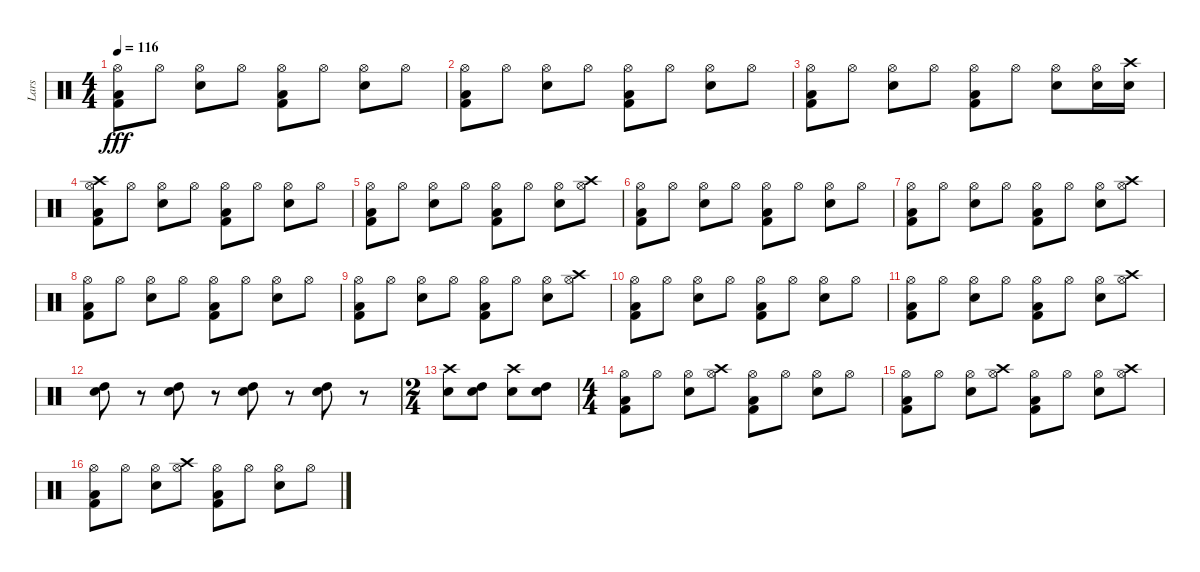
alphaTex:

\track ("Lars" "Lars") {instrument percussion}
\staff {score}
\articulation defaults
\ts (4 4)
\tempo 116
\clef neutral
\ks c
("Low Floor Tom (hit)" "Hi-Hat (open)" "Kick (hit) 2").8{dy fff} "Hi-Hat (open)".8 ("Hi-Hat (open)" "Electric Snare (hit)").8 "Hi-Hat (open)".8 ("Low Floor Tom (hit)" "Hi-Hat (open)" "Kick (hit) 2").8 "Hi-Hat (open)".8 ("Hi-Hat (open)" "Electric Snare (hit)").8 "Hi-Hat (open)".8 |
("Low Floor Tom (hit)" "Hi-Hat (open)" "Kick (hit) 2").8 "Hi-Hat (open)".8 ("Hi-Hat (open)" "Electric Snare (hit)").8 "Hi-Hat (open)".8 ("Low Floor Tom (hit)" "Hi-Hat (open)" "Kick (hit) 2").8 "Hi-Hat (open)".8 ("Hi-Hat (open)" "Electric Snare (hit)").8 "Hi-Hat (open)".8 |
("Low Floor Tom (hit)" "Hi-Hat (open)" "Kick (hit) 2").8 "Hi-Hat (open)".8 ("Hi-Hat (open)" "Electric Snare (hit)").8 "Hi-Hat (open)".8 ("Low Floor Tom (hit)" "Hi-Hat (open)" "Kick (hit) 2").8 "Hi-Hat (open)".8 ("Hi-Hat (open)" "Electric Snare (hit)").8 ("Hi-Hat (open)" "Electric Snare (hit)").16 ("Crash high (hit)" "Electric Snare (hit)").16 |
("Crash high (hit)" "Low Floor Tom (hit)" "Hi-Hat (open)" "Kick (hit) 2").8 "Hi-Hat (open)".8 ("Hi-Hat (open)" "Electric Snare (hit)").8 "Hi-Hat (open)".8 ("Low Floor Tom (hit)" "Hi-Hat (open)" "Kick (hit) 2").8 "Hi-Hat (open)".8 ("Hi-Hat (open)" "Electric Snare (hit)").8 "Hi-Hat (open)".8 |
("Low Floor Tom (hit)" "Hi-Hat (open)" "Kick (hit) 2").8 "Hi-Hat (open)".8 ("Hi-Hat (open)" "Electric Snare (hit)").8 "Hi-Hat (open)".8 ("Low Floor Tom (hit)" "Hi-Hat (open)" "Kick (hit) 2").8 "Hi-Hat (open)".8 ("Hi-Hat (open)" "Electric Snare (hit)").8 ("Crash high (hit)" "Hi-Hat (open)").8 |
("Low Floor Tom (hit)" "Hi-Hat (open)" "Kick (hit) 2").8 "Hi-Hat (open)".8 ("Hi-Hat (open)" "Electric Snare (hit)").8 "Hi-Hat (open)".8 ("Low Floor Tom (hit)" "Hi-Hat (open)" "Kick (hit) 2").8 "Hi-Hat (open)".8 ("Hi-Hat (open)" "Electric Snare (hit)").8 "Hi-Hat (open)".8 |
("Low Floor Tom (hit)" "Hi-Hat (open)" "Kick (hit) 2").8 "Hi-Hat (open)".8 ("Hi-Hat (open)" "Electric Snare (hit)").8 "Hi-Hat (open)".8 ("Low Floor Tom (hit)" "Hi-Hat (open)" "Kick (hit) 2").8 "Hi-Hat (open)".8 ("Hi-Hat (open)" "Electric Snare (hit)").8 ("Crash high (hit)" "Hi-Hat (open)").8 |
("Low Floor Tom (hit)" "Hi-Hat (open)" "Kick (hit) 2").8 "Hi-Hat (open)".8 ("Hi-Hat (open)" "Electric Snare (hit)").8 "Hi-Hat (open)".8 ("Low Floor Tom (hit)" "Hi-Hat (open)" "Kick (hit) 2").8 "Hi-Hat (open)".8 ("Hi-Hat (open)" "Electric Snare (hit)").8 "Hi-Hat (open)".8 |
("Low Floor Tom (hit)" "Hi-Hat (open)" "Kick (hit) 2").8 "Hi-Hat (open)".8 ("Hi-Hat (open)" "Electric Snare (hit)").8 "Hi-Hat (open)".8 ("Low Floor Tom (hit)" "Hi-Hat (open)" "Kick (hit) 2").8 "Hi-Hat (open)".8 ("Hi-Hat (open)" "Electric Snare (hit)").8 ("Crash high (hit)" "Hi-Hat (open)").8 |
("Low Floor Tom (hit)" "Hi-Hat (open)" "Kick (hit) 2").8 "Hi-Hat (open)".8 ("Hi-Hat (open)" "Electric Snare (hit)").8 "Hi-Hat (open)".8 ("Low Floor Tom (hit)" "Hi-Hat (open)" "Kick (hit) 2").8 "Hi-Hat (open)".8 ("Hi-Hat (open)" "Electric Snare (hit)").8 "Hi-Hat (open)".8 |
("Low Floor Tom (hit)" "Hi-Hat (open)" "Kick (hit) 2").8 "Hi-Hat (open)".8 ("Hi-Hat (open)" "Electric Snare (hit)").8 "Hi-Hat (open)".8 ("Low Floor Tom (hit)" "Hi-Hat (open)" "Kick (hit) 2").8 "Hi-Hat (open)".8 ("Hi-Hat (open)" "Electric Snare (hit)").8 ("Crash high (hit)" "Hi-Hat (open)").8 |
("High Tom (hit)" "Electric Snare (hit)").8 r.8 ("High Tom (hit)" "Electric Snare (hit)").8 r.8 ("High Tom (hit)" "Electric Snare (hit)").8 r.8 ("High Tom (hit)" "Electric Snare (hit)").8 r.8 |
\ts (2 4)
("Crash high (hit)" "Electric Snare (hit)").8 ("High Tom (hit)" "Electric Snare (hit)").8 ("Crash high (hit)" "Electric Snare (hit)").8 ("High Tom (hit)" "Electric Snare (hit)").8 |
\ts (4 4)
("Low Floor Tom (hit)" "Hi-Hat (open)" "Kick (hit) 2").8 "Hi-Hat (open)".8 ("Hi-Hat (open)" "Electric Snare (hit)").8 ("Crash high (hit)" "Hi-Hat (open)").8 ("Low Floor Tom (hit)" "Hi-Hat (open)" "Kick (hit) 2").8 "Hi-Hat (open)".8 ("Hi-Hat (open)" "Electric Snare (hit)").8 "Hi-Hat (open)".8 |
("Low Floor Tom (hit)" "Hi-Hat (open)" "Kick (hit) 2").8 "Hi-Hat (open)".8 ("Hi-Hat (open)" "Electric Snare (hit)").8 ("Crash high (hit)" "Hi-Hat (open)").8 ("Low Floor Tom (hit)" "Hi-Hat (open)" "Kick (hit) 2").8 "Hi-Hat (open)".8 ("Hi-Hat (open)" "Electric Snare (hit)").8 ("Crash high (hit)" "Hi-Hat (open)").8 |
("Low Floor Tom (hit)" "Hi-Hat (open)" "Kick (hit) 2").8 "Hi-Hat (open)".8 ("Hi-Hat (open)" "Electric Snare (hit)").8 ("Crash high (hit)" "Hi-Hat (open)").8 ("Low Floor Tom (hit)" "Hi-Hat (open)" "Kick (hit) 2").8 "Hi-Hat (open)".8 ("Hi-Hat (open)" "Electric Snare (hit)").8 "Hi-Hat (open)".8
